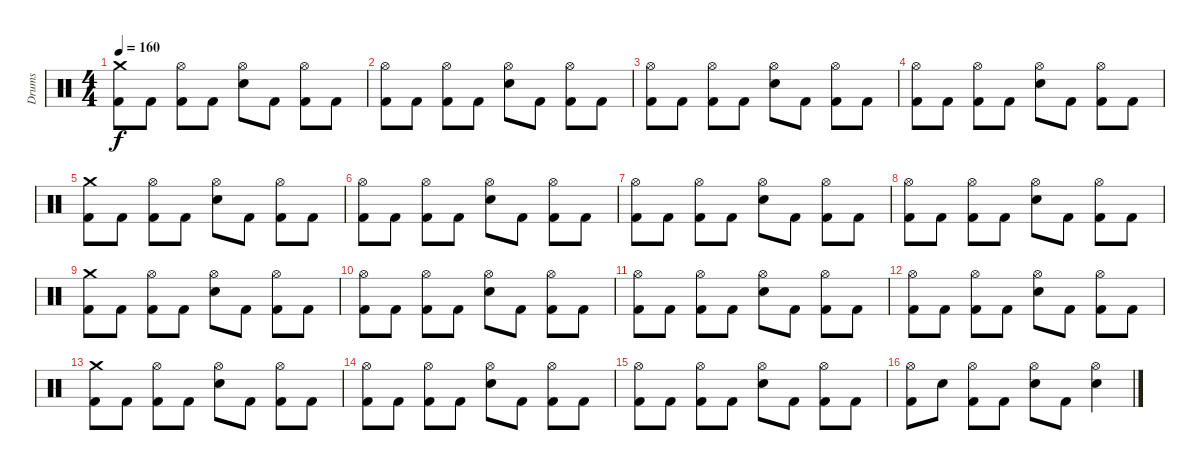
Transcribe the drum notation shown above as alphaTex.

\track ("Drums" "Drums") {instrument percussion}
\staff {score}
\articulation defaults
\ts (4 4)
\tempo 160
\clef neutral
\ks c
("Kick (hit) 2" "Crash medium (hit)").8{dy f} "Kick (hit) 2".8 ("Kick (hit) 2" "Hi-Hat (open)").8 "Kick (hit) 2".8 ("Electric Snare (hit)" "Hi-Hat (open)").8 "Kick (hit) 2".8 ("Kick (hit) 2" "Hi-Hat (open)").8 "Kick (hit) 2".8 |
("Kick (hit) 2" "Hi-Hat (open)").8 "Kick (hit) 2".8 ("Kick (hit) 2" "Hi-Hat (open)").8 "Kick (hit) 2".8 ("Electric Snare (hit)" "Hi-Hat (open)").8 "Kick (hit) 2".8 ("Kick (hit) 2" "Hi-Hat (open)").8 "Kick (hit) 2".8 |
("Kick (hit) 2" "Hi-Hat (open)").8 "Kick (hit) 2".8 ("Kick (hit) 2" "Hi-Hat (open)").8 "Kick (hit) 2".8 ("Electric Snare (hit)" "Hi-Hat (open)").8 "Kick (hit) 2".8 ("Kick (hit) 2" "Hi-Hat (open)").8 "Kick (hit) 2".8 |
("Kick (hit) 2" "Hi-Hat (open)").8 "Kick (hit) 2".8 ("Kick (hit) 2" "Hi-Hat (open)").8 "Kick (hit) 2".8 ("Electric Snare (hit)" "Hi-Hat (open)").8 "Kick (hit) 2".8 ("Kick (hit) 2" "Hi-Hat (open)").8 "Kick (hit) 2".8 |
("Kick (hit) 2" "Crash medium (hit)").8 "Kick (hit) 2".8 ("Kick (hit) 2" "Hi-Hat (open)").8 "Kick (hit) 2".8 ("Electric Snare (hit)" "Hi-Hat (open)").8 "Kick (hit) 2".8 ("Kick (hit) 2" "Hi-Hat (open)").8 "Kick (hit) 2".8 |
("Kick (hit) 2" "Hi-Hat (open)").8 "Kick (hit) 2".8 ("Kick (hit) 2" "Hi-Hat (open)").8 "Kick (hit) 2".8 ("Electric Snare (hit)" "Hi-Hat (open)").8 "Kick (hit) 2".8 ("Kick (hit) 2" "Hi-Hat (open)").8 "Kick (hit) 2".8 |
("Kick (hit) 2" "Hi-Hat (open)").8 "Kick (hit) 2".8 ("Kick (hit) 2" "Hi-Hat (open)").8 "Kick (hit) 2".8 ("Electric Snare (hit)" "Hi-Hat (open)").8 "Kick (hit) 2".8 ("Kick (hit) 2" "Hi-Hat (open)").8 "Kick (hit) 2".8 |
("Kick (hit) 2" "Hi-Hat (open)").8 "Kick (hit) 2".8 ("Kick (hit) 2" "Hi-Hat (open)").8 "Kick (hit) 2".8 ("Electric Snare (hit)" "Hi-Hat (open)").8 "Kick (hit) 2".8 ("Kick (hit) 2" "Hi-Hat (open)").8 "Kick (hit) 2".8 |
("Kick (hit) 2" "Crash medium (hit)").8 "Kick (hit) 2".8 ("Kick (hit) 2" "Hi-Hat (open)").8 "Kick (hit) 2".8 ("Electric Snare (hit)" "Hi-Hat (open)").8 "Kick (hit) 2".8 ("Kick (hit) 2" "Hi-Hat (open)").8 "Kick (hit) 2".8 |
("Kick (hit) 2" "Hi-Hat (open)").8 "Kick (hit) 2".8 ("Kick (hit) 2" "Hi-Hat (open)").8 "Kick (hit) 2".8 ("Electric Snare (hit)" "Hi-Hat (open)").8 "Kick (hit) 2".8 ("Kick (hit) 2" "Hi-Hat (open)").8 "Kick (hit) 2".8 |
("Kick (hit) 2" "Hi-Hat (open)").8 "Kick (hit) 2".8 ("Kick (hit) 2" "Hi-Hat (open)").8 "Kick (hit) 2".8 ("Electric Snare (hit)" "Hi-Hat (open)").8 "Kick (hit) 2".8 ("Kick (hit) 2" "Hi-Hat (open)").8 "Kick (hit) 2".8 |
("Kick (hit) 2" "Hi-Hat (open)").8 "Kick (hit) 2".8 ("Kick (hit) 2" "Hi-Hat (open)").8 "Kick (hit) 2".8 ("Electric Snare (hit)" "Hi-Hat (open)").8 "Kick (hit) 2".8 ("Kick (hit) 2" "Hi-Hat (open)").8 "Kick (hit) 2".8 |
("Kick (hit) 2" "Crash medium (hit)").8 "Kick (hit) 2".8 ("Kick (hit) 2" "Hi-Hat (open)").8 "Kick (hit) 2".8 ("Electric Snare (hit)" "Hi-Hat (open)").8 "Kick (hit) 2".8 ("Kick (hit) 2" "Hi-Hat (open)").8 "Kick (hit) 2".8 |
("Kick (hit) 2" "Hi-Hat (open)").8 "Kick (hit) 2".8 ("Kick (hit) 2" "Hi-Hat (open)").8 "Kick (hit) 2".8 ("Electric Snare (hit)" "Hi-Hat (open)").8 "Kick (hit) 2".8 ("Kick (hit) 2" "Hi-Hat (open)").8 "Kick (hit) 2".8 |
("Kick (hit) 2" "Hi-Hat (open)").8 "Kick (hit) 2".8 ("Kick (hit) 2" "Hi-Hat (open)").8 "Kick (hit) 2".8 ("Electric Snare (hit)" "Hi-Hat (open)").8 "Kick (hit) 2".8 ("Kick (hit) 2" "Hi-Hat (open)").8 "Kick (hit) 2".8 |
("Kick (hit) 2" "Hi-Hat (open)").8 "Electric Snare (hit)".8 ("Kick (hit) 2" "Hi-Hat (open)").8 "Kick (hit) 2".8 ("Electric Snare (hit)" "Hi-Hat (open)").8 "Kick (hit) 2".8 ("Electric Snare (hit)" "Hi-Hat (open)").4
